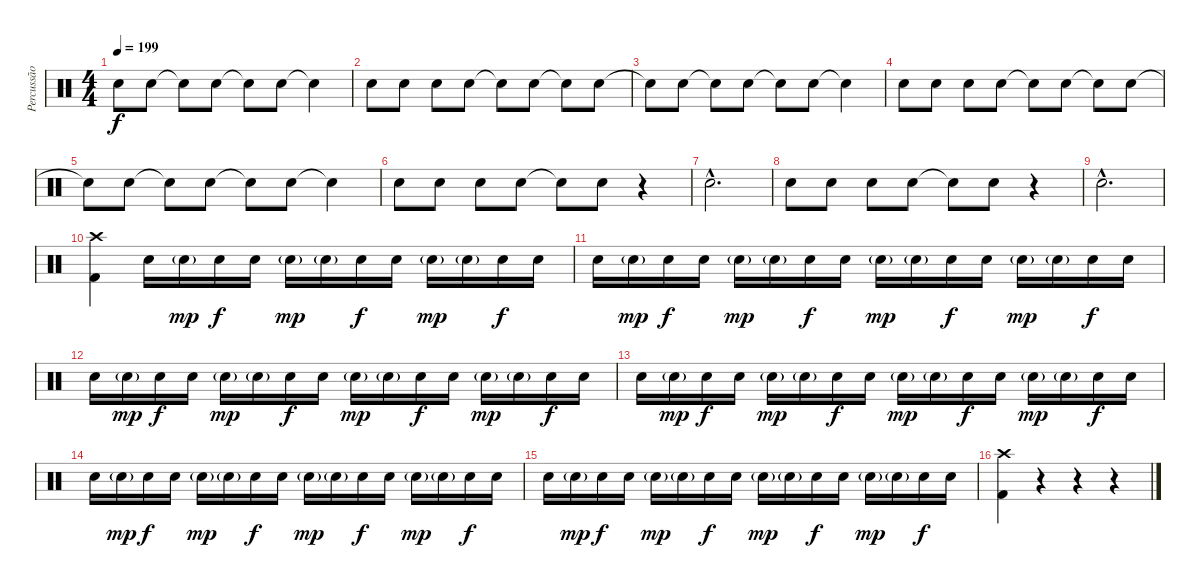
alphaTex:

\track ("Percussão" "Percussão") {instrument percussion}
\staff {score}
\articulation defaults
\ts (4 4)
\tempo 199
\clef neutral
\ks c "Snare (hit)"{t}.8{dy f} "Electric Snare (hit)".8 "Snare (hit)"{t}.8 "Electric Snare (hit)".8 "Snare (hit)"{t}.8 "Electric Snare (hit)".8 "Snare (hit)"{t}.4
|
"Electric Snare (hit)".8 "Electric Snare (hit)".8 "Electric Snare (hit)".8 "Electric Snare (hit)".8 "Snare (hit)"{t}.8 "Electric Snare (hit)".8 "Snare (hit)"{t}.8 "Electric Snare (hit)".8 |
"Snare (hit)"{t}.8 "Electric Snare (hit)".8 "Snare (hit)"{t}.8 "Electric Snare (hit)".8 "Snare (hit)"{t}.8 "Electric Snare (hit)".8 "Snare (hit)"{t}.4 |
"Electric Snare (hit)".8 "Electric Snare (hit)".8 "Electric Snare (hit)".8 "Electric Snare (hit)".8 "Snare (hit)"{t}.8 "Electric Snare (hit)".8 "Snare (hit)"{t}.8 "Electric Snare (hit)".8 |
"Snare (hit)"{t}.8 "Electric Snare (hit)".8 "Snare (hit)"{t}.8 "Electric Snare (hit)".8 "Snare (hit)"{t}.8 "Electric Snare (hit)".8 "Snare (hit)"{t}.4 |
"Electric Snare (hit)".8 "Electric Snare (hit)".8 "Electric Snare (hit)".8 "Electric Snare (hit)".8 "Snare (hit)"{t}.8 "Electric Snare (hit)".8 r.4 |
"Electric Snare (hit)"{hac}.2{d} |
"Electric Snare (hit)".8 "Electric Snare (hit)".8 "Electric Snare (hit)".8 "Electric Snare (hit)".8 "Snare (hit)"{t}.8 "Electric Snare (hit)".8 r.4 |
"Electric Snare (hit)"{hac}.2{d} |
("Crash high (hit)" "Kick (hit) 2").4 "Electric Snare (hit)".16{volume 8} "Electric Snare (hit)"{g}.16{dy mp} "Electric Snare (hit)".16{dy f} "Electric Snare (hit)".16 "Electric Snare (hit)"{g}.16{dy mp} "Electric Snare (hit)"{g}.16 "Electric Snare (hit)".16{dy f} "Electric Snare (hit)".16 "Electric Snare (hit)"{g}.16{dy mp} "Electric Snare (hit)"{g}.16 "Electric Snare (hit)".16{dy f} "Electric Snare (hit)".16 |
"Electric Snare (hit)".16 "Electric Snare (hit)"{g}.16{dy mp} "Electric Snare (hit)".16{dy f} "Electric Snare (hit)".16 "Electric Snare (hit)"{g}.16{dy mp} "Electric Snare (hit)"{g}.16 "Electric Snare (hit)".16{dy f} "Electric Snare (hit)".16 "Electric Snare (hit)"{g}.16{dy mp} "Electric Snare (hit)"{g}.16 "Electric Snare (hit)".16{dy f} "Electric Snare (hit)".16 "Electric Snare (hit)"{g}.16{dy mp} "Electric Snare (hit)"{g}.16 "Electric Snare (hit)".16{dy f} "Electric Snare (hit)".16 |
"Electric Snare (hit)".16 "Electric Snare (hit)"{g}.16{dy mp} "Electric Snare (hit)".16{dy f} "Electric Snare (hit)".16 "Electric Snare (hit)"{g}.16{dy mp} "Electric Snare (hit)"{g}.16 "Electric Snare (hit)".16{dy f} "Electric Snare (hit)".16 "Electric Snare (hit)"{g}.16{dy mp} "Electric Snare (hit)"{g}.16 "Electric Snare (hit)".16{dy f} "Electric Snare (hit)".16 "Electric Snare (hit)"{g}.16{dy mp} "Electric Snare (hit)"{g}.16 "Electric Snare (hit)".16{dy f} "Electric Snare (hit)".16 |
"Electric Snare (hit)".16 "Electric Snare (hit)"{g}.16{dy mp} "Electric Snare (hit)".16{dy f} "Electric Snare (hit)".16 "Electric Snare (hit)"{g}.16{dy mp} "Electric Snare (hit)"{g}.16 "Electric Snare (hit)".16{dy f} "Electric Snare (hit)".16 "Electric Snare (hit)"{g}.16{dy mp} "Electric Snare (hit)"{g}.16 "Electric Snare (hit)".16{dy f} "Electric Snare (hit)".16 "Electric Snare (hit)"{g}.16{dy mp} "Electric Snare (hit)"{g}.16 "Electric Snare (hit)".16{dy f} "Electric Snare (hit)".16 |
"Electric Snare (hit)".16 "Electric Snare (hit)"{g}.16{dy mp} "Electric Snare (hit)".16{dy f} "Electric Snare (hit)".16 "Electric Snare (hit)"{g}.16{dy mp} "Electric Snare (hit)"{g}.16 "Electric Snare (hit)".16{dy f} "Electric Snare (hit)".16 "Electric Snare (hit)"{g}.16{dy mp} "Electric Snare (hit)"{g}.16 "Electric Snare (hit)".16{dy f} "Electric Snare (hit)".16 "Electric Snare (hit)"{g}.16{dy mp} "Electric Snare (hit)"{g}.16 "Electric Snare (hit)".16{dy f} "Electric Snare (hit)".16 |
"Electric Snare (hit)".16 "Electric Snare (hit)"{g}.16{dy mp} "Electric Snare (hit)".16{dy f} "Electric Snare (hit)".16 "Electric Snare (hit)"{g}.16{dy mp} "Electric Snare (hit)"{g}.16 "Electric Snare (hit)".16{dy f} "Electric Snare (hit)".16 "Electric Snare (hit)"{g}.16{dy mp} "Electric Snare (hit)"{g}.16 "Electric Snare (hit)".16{dy f} "Electric Snare (hit)".16 "Electric Snare (hit)"{g}.16{dy mp} "Electric Snare (hit)"{g}.16 "Electric Snare (hit)".16{dy f} "Electric Snare (hit)".16 |
("Crash high (hit)" "Kick (hit) 2").4{volume 16} r.4 r.4 r.4
